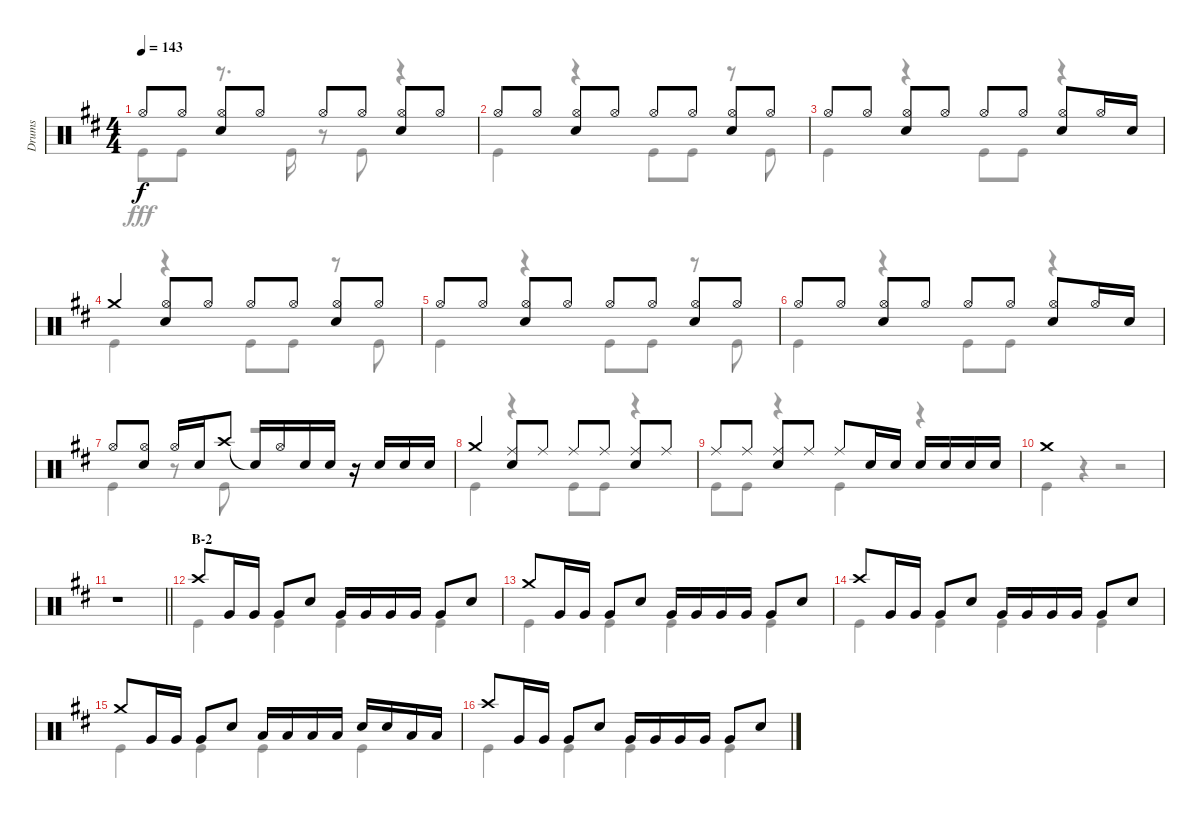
\track ("Drums" "Drums") {instrument percussion}
\staff {score}
\articulation defaults
\voice
\ts (4 4)
\tempo 143
\clef neutral
\ks d "Hi-Hat (open)".8{dy f} "Hi-Hat (open)".8
("Hi-Hat (open)" "Snare (hit) 2").8 "Hi-Hat (open)".8 "Hi-Hat (open)".8 "Hi-Hat (open)".8 ("Hi-Hat (open)" "Snare (hit) 2").8 "Hi-Hat (open)".8 |
"Hi-Hat (open)".8 "Hi-Hat (open)".8 ("Hi-Hat (open)" "Snare (hit) 2").8 "Hi-Hat (open)".8 "Hi-Hat (open)".8 "Hi-Hat (open)".8 ("Hi-Hat (open)" "Snare (hit) 2").8 "Hi-Hat (open)".8 |
"Hi-Hat (open)".8 "Hi-Hat (open)".8 ("Hi-Hat (open)" "Snare (hit) 2").8 "Hi-Hat (open)".8 "Hi-Hat (open)".8 "Hi-Hat (open)".8 ("Hi-Hat (open)" "Snare (hit) 2").8 "Hi-Hat (open)".16 "Snare (hit) 2".16 |
"Crash medium (hit)".4 ("Hi-Hat (open)" "Snare (hit) 2").8 "Hi-Hat (open)".8 "Hi-Hat (open)".8 "Hi-Hat (open)".8 ("Hi-Hat (open)" "Snare (hit) 2").8 "Hi-Hat (open)".8 |
"Hi-Hat (open)".8 "Hi-Hat (open)".8 ("Hi-Hat (open)" "Snare (hit) 2").8 "Hi-Hat (open)".8 "Hi-Hat (open)".8 "Hi-Hat (open)".8 ("Hi-Hat (open)" "Snare (hit) 2").8 "Hi-Hat (open)".8 |
"Hi-Hat (open)".8 "Hi-Hat (open)".8 ("Hi-Hat (open)" "Snare (hit) 2").8 "Hi-Hat (open)".8 "Hi-Hat (open)".8 "Hi-Hat (open)".8 ("Hi-Hat (open)" "Snare (hit) 2").8 "Hi-Hat (open)".16 "Snare (hit) 2".16 |
"Hi-Hat (open)".8 ("Hi-Hat (open)" "Snare (hit) 2").8 "Hi-Hat (open)".16 "Snare (hit) 2".16 "Crash high (hit)".8 "Snare (hit)"{t}.16 "Hi-Hat (open)".16 "Snare (hit) 2".16 "Snare (hit) 2".16 r.16 "Snare (hit) 2".16 "Snare (hit) 2".16 "Snare (hit) 2".16 |
"Crash medium (hit)".4 ("Ride (middle)" "Snare (hit) 2").8 "Ride (middle)".8 "Ride (middle)".8 "Ride (middle)".8 ("Ride (middle)" "Snare (hit) 2").8 "Ride (middle)".8 |
"Ride (middle)".8 "Ride (middle)".8 ("Ride (middle)" "Snare (hit) 2").8 "Ride (middle)".8 "Ride (middle)".8 "Snare (hit) 2".16 "Snare (hit) 2".16 "Snare (hit) 2".16 "Snare (hit) 2".16 "Snare (hit) 2".16 "Snare (hit) 2".16 |
"Crash medium (hit)".1 |
\barLineRight lightlight
r.1 |
\section ("" "B-2")
"Crash high (hit)".8 "Very Low Tom (hit)".16 "Very Low Tom (hit)".16 "Very Low Tom (hit)".8 "Snare (hit) 2".8 "Very Low Tom (hit)".16 "Very Low Tom (hit)".16 "Very Low Tom (hit)".16 "Very Low Tom (hit)".16 "Very Low Tom (hit)".8 "Snare (hit) 2".8 |
"Crash medium (hit)".8 "Very Low Tom (hit)".16 "Very Low Tom (hit)".16 "Very Low Tom (hit)".8 "Snare (hit) 2".8 "Very Low Tom (hit)".16 "Very Low Tom (hit)".16 "Very Low Tom (hit)".16 "Very Low Tom (hit)".16 "Very Low Tom (hit)".8 "Snare (hit) 2".8 |
"Crash high (hit)".8 "Very Low Tom (hit)".16 "Very Low Tom (hit)".16 "Very Low Tom (hit)".8 "Snare (hit) 2".8 "Very Low Tom (hit)".16 "Very Low Tom (hit)".16 "Very Low Tom (hit)".16 "Very Low Tom (hit)".16 "Very Low Tom (hit)".8 "Snare (hit) 2".8 |
"Crash medium (hit)".8 "Very Low Tom (hit)".16 "Very Low Tom (hit)".16 "Very Low Tom (hit)".8 "Snare (hit) 2".8 "Low Tom (hit)".16 "Low Tom (hit)".16 "Low Tom (hit)".16 "Low Tom (hit)".16 "Snare (hit) 2".16 "Snare (hit) 2".16 "Low Tom (hit)".16 "Low Tom (hit)".16 |
"Crash high (hit)".8 "Very Low Tom (hit)".16 "Very Low Tom (hit)".16 "Very Low Tom (hit)".8 "Snare (hit) 2".8 "Very Low Tom (hit)".16 "Very Low Tom (hit)".16 "Very Low Tom (hit)".16 "Very Low Tom (hit)".16 "Very Low Tom (hit)".8 "Snare (hit) 2".8
\voice
\clef neutral
\ottava regular
\simile none
\ks d "Kick (hit)".8{dy fff} "Kick (hit)".8
r.8{d} "Kick (hit)".16 r.8 "Kick (hit)".8 r.4 |
"Kick (hit)".4 r.4 "Kick (hit)".8 "Kick (hit)".8 r.8 "Kick (hit)".8 |
"Kick (hit)".4 r.4 "Kick (hit)".8 "Kick (hit)".8 r.4 |
"Kick (hit)".4 r.4 "Kick (hit)".8 "Kick (hit)".8 r.8 "Kick (hit)".8 |
"Kick (hit)".4 r.4 "Kick (hit)".8 "Kick (hit)".8 r.8 "Kick (hit)".8 |
"Kick (hit)".4 r.4 "Kick (hit)".8 "Kick (hit)".8 r.4 |
"Kick (hit)".4 r.8 "Kick (hit)".8 r.2 |
"Kick (hit)".4 r.4 "Kick (hit)".8 "Kick (hit)".8 r.4 |
"Kick (hit)".8 "Kick (hit)".8 r.4 "Kick (hit)".4 r.4 |
"Kick (hit)".4 r.4 r.2 |
\barLineRight lightlight
r.1 |
"Kick (hit)".4 "Kick (hit)".4 "Kick (hit)".4 "Kick (hit)".4 |
"Kick (hit)".4 "Kick (hit)".4 "Kick (hit)".4 "Kick (hit)".4 |
"Kick (hit)".4 "Kick (hit)".4 "Kick (hit)".4 "Kick (hit)".4 |
"Kick (hit)".4 "Kick (hit)".4 "Kick (hit)".4 "Kick (hit)".4 |
"Kick (hit)".4 "Kick (hit)".4 "Kick (hit)".4 "Kick (hit)".4
